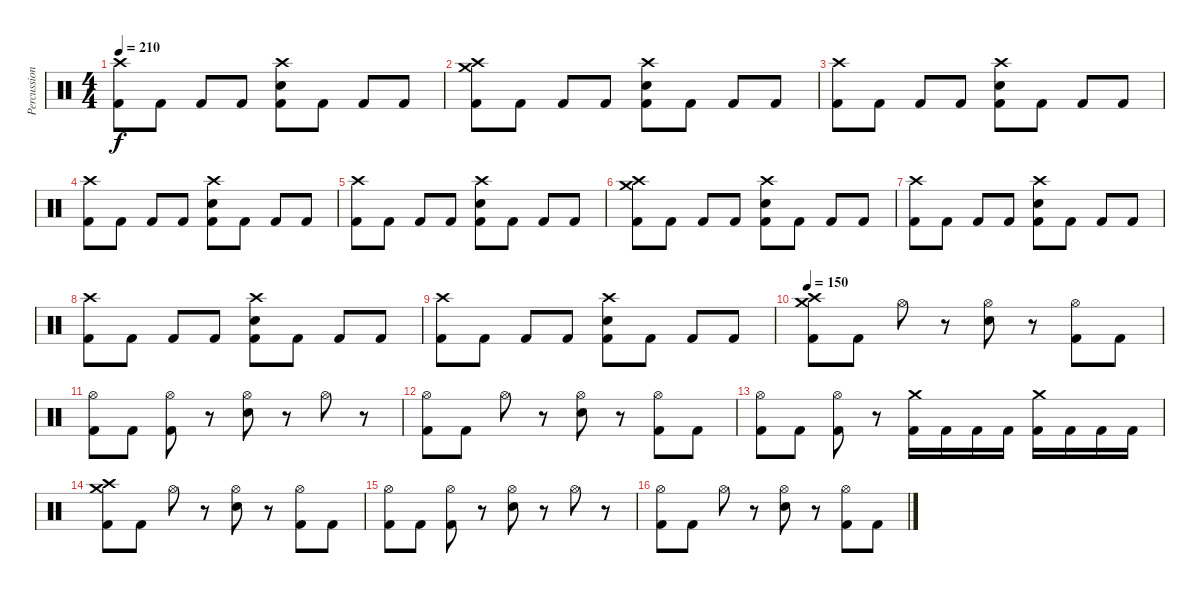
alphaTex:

\track ("Percussion" "Percussion") {instrument percussion}
\staff {score}
\articulation defaults
\ts (4 4)
\tempo 210
\clef neutral
\ks c
("Crash high (hit)" "Kick (hit) 2").8{dy f} "Kick (hit) 2".8 "Kick (hit) 2".8 "Kick (hit) 2".8 ("Crash high (hit)" "Snare (hit) 2" "Kick (hit) 2").8 "Kick (hit) 2".8 "Kick (hit) 2".8 "Kick (hit) 2".8 |
("Crash high (hit)" "Crash medium (hit)" "Kick (hit) 2").8 "Kick (hit) 2".8 "Kick (hit) 2".8 "Kick (hit) 2".8 ("Crash high (hit)" "Snare (hit) 2" "Kick (hit) 2").8 "Kick (hit) 2".8 "Kick (hit) 2".8 "Kick (hit) 2".8 |
("Crash high (hit)" "Kick (hit) 2").8 "Kick (hit) 2".8 "Kick (hit) 2".8 "Kick (hit) 2".8 ("Crash high (hit)" "Snare (hit) 2" "Kick (hit) 2").8 "Kick (hit) 2".8 "Kick (hit) 2".8 "Kick (hit) 2".8 |
("Crash high (hit)" "Kick (hit) 2").8 "Kick (hit) 2".8 "Kick (hit) 2".8 "Kick (hit) 2".8 ("Crash high (hit)" "Snare (hit) 2" "Kick (hit) 2").8 "Kick (hit) 2".8 "Kick (hit) 2".8 "Kick (hit) 2".8 |
("Crash high (hit)" "Kick (hit) 2").8 "Kick (hit) 2".8 "Kick (hit) 2".8 "Kick (hit) 2".8 ("Crash high (hit)" "Snare (hit) 2" "Kick (hit) 2").8 "Kick (hit) 2".8 "Kick (hit) 2".8 "Kick (hit) 2".8 |
("Crash high (hit)" "Crash medium (hit)" "Kick (hit) 2").8 "Kick (hit) 2".8 "Kick (hit) 2".8 "Kick (hit) 2".8 ("Crash high (hit)" "Snare (hit) 2" "Kick (hit) 2").8 "Kick (hit) 2".8 "Kick (hit) 2".8 "Kick (hit) 2".8 |
("Crash high (hit)" "Kick (hit) 2").8 "Kick (hit) 2".8 "Kick (hit) 2".8 "Kick (hit) 2".8 ("Crash high (hit)" "Snare (hit) 2" "Kick (hit) 2").8 "Kick (hit) 2".8 "Kick (hit) 2".8 "Kick (hit) 2".8 |
("Crash high (hit)" "Kick (hit) 2").8 "Kick (hit) 2".8 "Kick (hit) 2".8 "Kick (hit) 2".8 ("Crash high (hit)" "Snare (hit) 2" "Kick (hit) 2").8 "Kick (hit) 2".8 "Kick (hit) 2".8 "Kick (hit) 2".8 |
("Crash high (hit)" "Kick (hit) 2").8 "Kick (hit) 2".8 "Kick (hit) 2".8 "Kick (hit) 2".8 ("Crash high (hit)" "Snare (hit) 2" "Kick (hit) 2").8 "Kick (hit) 2".8 "Kick (hit) 2".8 "Kick (hit) 2".8 |
\tempo 150
("Crash medium (hit)" "Crash high (hit)" "Kick (hit) 2").8 "Kick (hit) 2".8 "Hi-Hat (open)".8 r.8 ("Hi-Hat (open)" "Snare (hit) 2").8 r.8 ("Hi-Hat (open)" "Kick (hit) 2").8 "Kick (hit) 2".8 |
("Hi-Hat (open)" "Kick (hit) 2").8 "Kick (hit) 2".8 ("Hi-Hat (open)" "Kick (hit) 2").8 r.8 ("Hi-Hat (open)" "Snare (hit) 2").8 r.8 "Hi-Hat (open)".8 r.8 |
("Hi-Hat (open)" "Kick (hit) 2").8 "Kick (hit) 2".8 "Hi-Hat (open)".8 r.8 ("Hi-Hat (open)" "Snare (hit) 2").8 r.8 ("Hi-Hat (open)" "Kick (hit) 2").8 "Kick (hit) 2".8 |
("Hi-Hat (open)" "Kick (hit) 2").8 "Kick (hit) 2".8 ("Hi-Hat (open)" "Kick (hit) 2").8 r.8 ("Crash medium (hit)" "Kick (hit) 2").16 "Kick (hit) 2".16 "Kick (hit) 2".16 "Kick (hit) 2".16 ("Crash medium (hit)" "Kick (hit) 2").16 "Kick (hit) 2".16 "Kick (hit) 2".16 "Kick (hit) 2".16 |
("Crash medium (hit)" "Crash high (hit)" "Kick (hit) 2").8 "Kick (hit) 2".8 "Hi-Hat (open)".8 r.8 ("Hi-Hat (open)" "Snare (hit) 2").8 r.8 ("Hi-Hat (open)" "Kick (hit) 2").8 "Kick (hit) 2".8 |
("Hi-Hat (open)" "Kick (hit) 2").8 "Kick (hit) 2".8 ("Hi-Hat (open)" "Kick (hit) 2").8 r.8 ("Hi-Hat (open)" "Snare (hit) 2").8 r.8 "Hi-Hat (open)".8 r.8 |
("Hi-Hat (open)" "Kick (hit) 2").8 "Kick (hit) 2".8 "Hi-Hat (open)".8 r.8 ("Hi-Hat (open)" "Snare (hit) 2").8 r.8 ("Hi-Hat (open)" "Kick (hit) 2").8 "Kick (hit) 2".8
